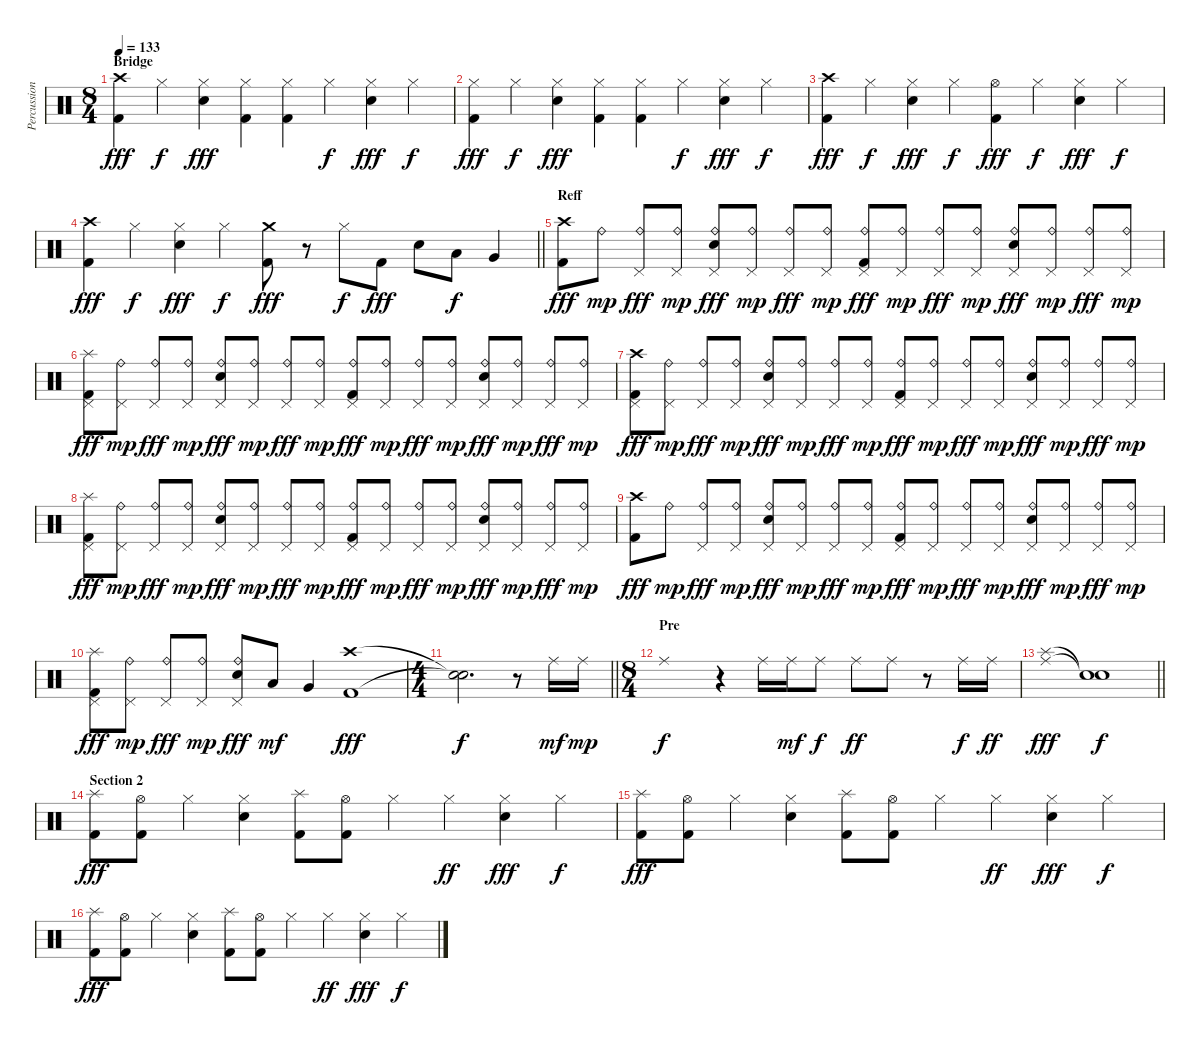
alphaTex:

\track ("Percussion" "Percussion") {instrument percussion}
\staff {score}
\articulation defaults
\ts (8 4)
\section ("" "Bridge")
\tempo 133
\clef neutral
\ks c
("Crash high (hit)" "Kick (hit) 2").4{dy fff} "Hi-Hat (closed)".4{dy f} ("Hi-Hat (closed)" "Electric Snare (hit)").4{dy fff} ("Hi-Hat (closed)" "Kick (hit) 2").4 ("Hi-Hat (closed)" "Kick (hit) 2").4 "Hi-Hat (closed)".4{dy f} ("Hi-Hat (closed)" "Electric Snare (hit)").4{dy fff} "Hi-Hat (closed)".4{dy f} |
("Hi-Hat (closed)" "Kick (hit) 2").4{dy fff} "Hi-Hat (closed)".4{dy f} ("Hi-Hat (closed)" "Electric Snare (hit)").4{dy fff} ("Hi-Hat (closed)" "Kick (hit) 2").4 ("Hi-Hat (closed)" "Kick (hit) 2").4 "Hi-Hat (closed)".4{dy f} ("Hi-Hat (closed)" "Electric Snare (hit)").4{dy fff} "Hi-Hat (closed)".4{dy f} |
("Crash high (hit)" "Kick (hit) 2").4{dy fff} "Hi-Hat (closed)".4{dy f} ("Hi-Hat (closed)" "Electric Snare (hit)").4{dy fff} "Hi-Hat (closed)".4{dy f} ("Hi-Hat (open)" "Kick (hit) 2").4{dy fff} "Hi-Hat (closed)".4{dy f} ("Hi-Hat (closed)" "Electric Snare (hit)").4{dy fff} "Hi-Hat (closed)".4{dy f} |
\barLineRight lightlight
("Crash high (hit)" "Kick (hit) 2").4{dy fff} "Hi-Hat (closed)".4{dy f} ("Hi-Hat (closed)" "Electric Snare (hit)").4{dy fff} "Hi-Hat (closed)".4{dy f} ("Crash medium (hit)" "Kick (hit) 2").8{dy fff} r.8 "Hi-Hat (closed)".8{dy f} "Kick (hit) 2".8{dy fff} "Electric Snare (hit)".8 "Low Tom (hit)".8{dy f} "Very Low Tom (hit)".4 |
\section ("" "Reff")
("Crash high (hit)" "Kick (hit) 2").8{dy fff} "Ride (bell)".8{dy mp} ("Ride (bell)" "Pedal Hi-Hat (hit)").8{dy fff} ("Ride (bell)" "Pedal Hi-Hat (hit)").8{dy mp} ("Ride (bell)" "Pedal Hi-Hat (hit)" "Electric Snare (hit)").8{dy fff} ("Ride (bell)" "Pedal Hi-Hat (hit)").8{dy mp} ("Ride (bell)" "Pedal Hi-Hat (hit)").8{dy fff} ("Ride (bell)" "Pedal Hi-Hat (hit)").8{dy mp} ("Ride (bell)" "Pedal Hi-Hat (hit)" "Kick (hit) 2").8{dy fff} ("Ride (bell)" "Pedal Hi-Hat (hit)").8{dy mp} ("Ride (bell)" "Pedal Hi-Hat (hit)").8{dy fff} ("Ride (bell)" "Pedal Hi-Hat (hit)").8{dy mp} ("Ride (bell)" "Pedal Hi-Hat (hit)" "Electric Snare (hit)").8{dy fff} ("Ride (bell)" "Pedal Hi-Hat (hit)").8{dy mp} ("Ride (bell)" "Pedal Hi-Hat (hit)").8{dy fff} ("Ride (bell)" "Pedal Hi-Hat (hit)").8{dy mp} |
("Splash (hit)" "Pedal Hi-Hat (hit)" "Kick (hit) 2").8{dy fff} ("Ride (bell)" "Pedal Hi-Hat (hit)").8{dy mp} ("Ride (bell)" "Pedal Hi-Hat (hit)").8{dy fff} ("Ride (bell)" "Pedal Hi-Hat (hit)").8{dy mp} ("Ride (bell)" "Pedal Hi-Hat (hit)" "Electric Snare (hit)").8{dy fff} ("Ride (bell)" "Pedal Hi-Hat (hit)").8{dy mp} ("Ride (bell)" "Pedal Hi-Hat (hit)").8{dy fff} ("Ride (bell)" "Pedal Hi-Hat (hit)").8{dy mp} ("Ride (bell)" "Pedal Hi-Hat (hit)" "Kick (hit) 2").8{dy fff} ("Ride (bell)" "Pedal Hi-Hat (hit)").8{dy mp} ("Ride (bell)" "Pedal Hi-Hat (hit)").8{dy fff} ("Ride (bell)" "Pedal Hi-Hat (hit)").8{dy mp} ("Ride (bell)" "Pedal Hi-Hat (hit)" "Electric Snare (hit)").8{dy fff} ("Ride (bell)" "Pedal Hi-Hat (hit)").8{dy mp} ("Ride (bell)" "Pedal Hi-Hat (hit)").8{dy fff} ("Ride (bell)" "Pedal Hi-Hat (hit)").8{dy mp} |
("Crash high (hit)" "Pedal Hi-Hat (hit)" "Kick (hit) 2").8{dy fff} ("Ride (bell)" "Pedal Hi-Hat (hit)").8{dy mp} ("Ride (bell)" "Pedal Hi-Hat (hit)").8{dy fff} ("Ride (bell)" "Pedal Hi-Hat (hit)").8{dy mp} ("Ride (bell)" "Pedal Hi-Hat (hit)" "Electric Snare (hit)").8{dy fff} ("Ride (bell)" "Pedal Hi-Hat (hit)").8{dy mp} ("Ride (bell)" "Pedal Hi-Hat (hit)").8{dy fff} ("Ride (bell)" "Pedal Hi-Hat (hit)").8{dy mp} ("Ride (bell)" "Pedal Hi-Hat (hit)" "Kick (hit) 2").8{dy fff} ("Ride (bell)" "Pedal Hi-Hat (hit)").8{dy mp} ("Ride (bell)" "Pedal Hi-Hat (hit)").8{dy fff} ("Ride (bell)" "Pedal Hi-Hat (hit)").8{dy mp} ("Ride (bell)" "Pedal Hi-Hat (hit)" "Electric Snare (hit)").8{dy fff} ("Ride (bell)" "Pedal Hi-Hat (hit)").8{dy mp} ("Ride (bell)" "Pedal Hi-Hat (hit)").8{dy fff} ("Ride (bell)" "Pedal Hi-Hat (hit)").8{dy mp} |
("Splash (hit)" "Pedal Hi-Hat (hit)" "Kick (hit) 2").8{dy fff} ("Ride (bell)" "Pedal Hi-Hat (hit)").8{dy mp} ("Ride (bell)" "Pedal Hi-Hat (hit)").8{dy fff} ("Ride (bell)" "Pedal Hi-Hat (hit)").8{dy mp} ("Ride (bell)" "Pedal Hi-Hat (hit)" "Electric Snare (hit)").8{dy fff} ("Ride (bell)" "Pedal Hi-Hat (hit)").8{dy mp} ("Ride (bell)" "Pedal Hi-Hat (hit)").8{dy fff} ("Ride (bell)" "Pedal Hi-Hat (hit)").8{dy mp} ("Ride (bell)" "Pedal Hi-Hat (hit)" "Kick (hit) 2").8{dy fff} ("Ride (bell)" "Pedal Hi-Hat (hit)").8{dy mp} ("Ride (bell)" "Pedal Hi-Hat (hit)").8{dy fff} ("Ride (bell)" "Pedal Hi-Hat (hit)").8{dy mp} ("Ride (bell)" "Pedal Hi-Hat (hit)" "Electric Snare (hit)").8{dy fff} ("Ride (bell)" "Pedal Hi-Hat (hit)").8{dy mp} ("Ride (bell)" "Pedal Hi-Hat (hit)").8{dy fff} ("Ride (bell)" "Pedal Hi-Hat (hit)").8{dy mp} |
("Crash high (hit)" "Kick (hit) 2").8{dy fff} "Ride (bell)".8{dy mp} ("Ride (bell)" "Pedal Hi-Hat (hit)").8{dy fff} ("Ride (bell)" "Pedal Hi-Hat (hit)").8{dy mp} ("Ride (bell)" "Pedal Hi-Hat (hit)" "Electric Snare (hit)").8{dy fff} ("Ride (bell)" "Pedal Hi-Hat (hit)").8{dy mp} ("Ride (bell)" "Pedal Hi-Hat (hit)").8{dy fff} ("Ride (bell)" "Pedal Hi-Hat (hit)").8{dy mp} ("Ride (bell)" "Pedal Hi-Hat (hit)" "Kick (hit) 2").8{dy fff} ("Ride (bell)" "Pedal Hi-Hat (hit)").8{dy mp} ("Ride (bell)" "Pedal Hi-Hat (hit)").8{dy fff} ("Ride (bell)" "Pedal Hi-Hat (hit)").8{dy mp} ("Ride (bell)" "Pedal Hi-Hat (hit)" "Electric Snare (hit)").8{dy fff} ("Ride (bell)" "Pedal Hi-Hat (hit)").8{dy mp} ("Ride (bell)" "Pedal Hi-Hat (hit)").8{dy fff} ("Ride (bell)" "Pedal Hi-Hat (hit)").8{dy mp} |
("Splash (hit)" "Pedal Hi-Hat (hit)" "Kick (hit) 2").8{dy fff} ("Ride (bell)" "Pedal Hi-Hat (hit)").8{dy mp} ("Ride (bell)" "Pedal Hi-Hat (hit)").8{dy fff} ("Ride (bell)" "Pedal Hi-Hat (hit)").8{dy mp} ("Ride (bell)" "Pedal Hi-Hat (hit)" "Electric Snare (hit)").8{dy fff} "Low Tom (hit)".8{dy mf} "Very Low Tom (hit)".4 ("Crash high (hit)" "Kick (hit) 2").1{dy fff} |
\ts (4 4)
\barLineRight lightlight
("Snare (hit)"{t} "Snare (hit)"{t}).2{d dy f} r.8 "Ride (middle)".16{dy mf} "Ride (middle)".16{dy mp} |
\ts (8 4)
\section ("" "Pre")
"Ride (middle)".1{dy f} r.4 "Ride (middle)".16 "Ride (middle)".16{dy mf} "Ride (middle)".8{dy f} "Ride (middle)".8{dy ff} "Ride (middle)".8 r.8 "Ride (middle)".16{dy f} "Ride (middle)".16{dy ff} |
\barLineRight lightlight
("Ride (middle)" "Splash (hit)").1{dy fff} ("Snare (hit)"{t} "Snare (hit)"{t}).1{dy f} |
\section ("" "Section 2")
("Splash (hit)" "Kick (hit) 2").8{dy fff} ("Hi-Hat (open)" "Kick (hit) 2").8 "Hi-Hat (closed)".4 ("Hi-Hat (closed)" "Electric Snare (hit)").4 ("Splash (hit)" "Kick (hit) 2").8 ("Hi-Hat (open)" "Kick (hit) 2").8 "Hi-Hat (closed)".4 "Hi-Hat (closed)".4{dy ff} ("Hi-Hat (closed)" "Electric Snare (hit)").4{dy fff} "Hi-Hat (closed)".4{dy f} |
("Splash (hit)" "Kick (hit) 2").8{dy fff} ("Hi-Hat (open)" "Kick (hit) 2").8 "Hi-Hat (closed)".4 ("Hi-Hat (closed)" "Electric Snare (hit)").4 ("Splash (hit)" "Kick (hit) 2").8 ("Hi-Hat (open)" "Kick (hit) 2").8 "Hi-Hat (closed)".4 "Hi-Hat (closed)".4{dy ff} ("Hi-Hat (closed)" "Electric Snare (hit)").4{dy fff} "Hi-Hat (closed)".4{dy f} |
("Splash (hit)" "Kick (hit) 2").8{dy fff} ("Hi-Hat (open)" "Kick (hit) 2").8 "Hi-Hat (closed)".4 ("Hi-Hat (closed)" "Electric Snare (hit)").4 ("Splash (hit)" "Kick (hit) 2").8 ("Hi-Hat (open)" "Kick (hit) 2").8 "Hi-Hat (closed)".4 "Hi-Hat (closed)".4{dy ff} ("Hi-Hat (closed)" "Electric Snare (hit)").4{dy fff} "Hi-Hat (closed)".4{dy f}
